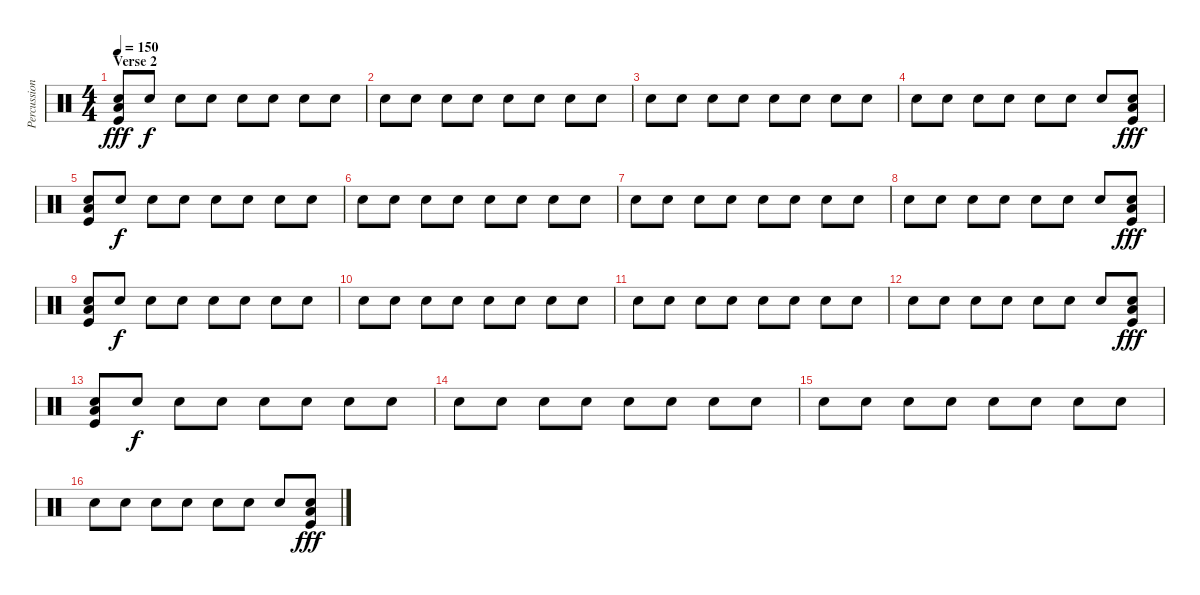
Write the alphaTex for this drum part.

\track ("Percussion" "Percussion") {instrument percussion}
\staff {score}
\articulation defaults
\ts (4 4)
\section ("" "Verse 2")
\tempo 150
\clef neutral
\ks c
("Low Floor Tom (hit)" "Snare (hit) 2" "Kick (hit)").8{dy fff} "Snare (hit) 2".8{dy f} "Snare (hit) 2".8 "Snare (hit) 2".8 "Snare (hit) 2".8 "Snare (hit) 2".8 "Snare (hit) 2".8 "Snare (hit) 2".8 |
"Snare (hit) 2".8 "Snare (hit) 2".8 "Snare (hit) 2".8 "Snare (hit) 2".8 "Snare (hit) 2".8 "Snare (hit) 2".8 "Snare (hit) 2".8 "Snare (hit) 2".8 |
"Snare (hit) 2".8 "Snare (hit) 2".8 "Snare (hit) 2".8 "Snare (hit) 2".8 "Snare (hit) 2".8 "Snare (hit) 2".8 "Snare (hit) 2".8 "Snare (hit) 2".8 |
"Snare (hit) 2".8 "Snare (hit) 2".8 "Snare (hit) 2".8 "Snare (hit) 2".8 "Snare (hit) 2".8 "Snare (hit) 2".8 "Snare (hit) 2".8 ("Low Floor Tom (hit)" "Snare (hit) 2" "Kick (hit)").8{dy fff} |
("Low Floor Tom (hit)" "Snare (hit) 2" "Kick (hit)").8 "Snare (hit) 2".8{dy f} "Snare (hit) 2".8 "Snare (hit) 2".8 "Snare (hit) 2".8 "Snare (hit) 2".8 "Snare (hit) 2".8 "Snare (hit) 2".8 |
"Snare (hit) 2".8 "Snare (hit) 2".8 "Snare (hit) 2".8 "Snare (hit) 2".8 "Snare (hit) 2".8 "Snare (hit) 2".8 "Snare (hit) 2".8 "Snare (hit) 2".8 |
"Snare (hit) 2".8 "Snare (hit) 2".8 "Snare (hit) 2".8 "Snare (hit) 2".8 "Snare (hit) 2".8 "Snare (hit) 2".8 "Snare (hit) 2".8 "Snare (hit) 2".8 |
"Snare (hit) 2".8 "Snare (hit) 2".8 "Snare (hit) 2".8 "Snare (hit) 2".8 "Snare (hit) 2".8 "Snare (hit) 2".8 "Snare (hit) 2".8 ("Low Floor Tom (hit)" "Snare (hit) 2" "Kick (hit)").8{dy fff} |
("Low Floor Tom (hit)" "Snare (hit) 2" "Kick (hit)").8 "Snare (hit) 2".8{dy f} "Snare (hit) 2".8 "Snare (hit) 2".8 "Snare (hit) 2".8 "Snare (hit) 2".8 "Snare (hit) 2".8 "Snare (hit) 2".8 |
"Snare (hit) 2".8 "Snare (hit) 2".8 "Snare (hit) 2".8 "Snare (hit) 2".8 "Snare (hit) 2".8 "Snare (hit) 2".8 "Snare (hit) 2".8 "Snare (hit) 2".8 |
"Snare (hit) 2".8 "Snare (hit) 2".8 "Snare (hit) 2".8 "Snare (hit) 2".8 "Snare (hit) 2".8 "Snare (hit) 2".8 "Snare (hit) 2".8 "Snare (hit) 2".8 |
"Snare (hit) 2".8 "Snare (hit) 2".8 "Snare (hit) 2".8 "Snare (hit) 2".8 "Snare (hit) 2".8 "Snare (hit) 2".8 "Snare (hit) 2".8 ("Low Floor Tom (hit)" "Snare (hit) 2" "Kick (hit)").8{dy fff} |
("Low Floor Tom (hit)" "Snare (hit) 2" "Kick (hit)").8 "Snare (hit) 2".8{dy f} "Snare (hit) 2".8 "Snare (hit) 2".8 "Snare (hit) 2".8 "Snare (hit) 2".8 "Snare (hit) 2".8 "Snare (hit) 2".8 |
"Snare (hit) 2".8 "Snare (hit) 2".8 "Snare (hit) 2".8 "Snare (hit) 2".8 "Snare (hit) 2".8 "Snare (hit) 2".8 "Snare (hit) 2".8 "Snare (hit) 2".8 |
"Snare (hit) 2".8 "Snare (hit) 2".8 "Snare (hit) 2".8 "Snare (hit) 2".8 "Snare (hit) 2".8 "Snare (hit) 2".8 "Snare (hit) 2".8 "Snare (hit) 2".8 |
"Snare (hit) 2".8 "Snare (hit) 2".8 "Snare (hit) 2".8 "Snare (hit) 2".8 "Snare (hit) 2".8 "Snare (hit) 2".8 "Snare (hit) 2".8 ("Low Floor Tom (hit)" "Snare (hit) 2" "Kick (hit)").8{dy fff}
